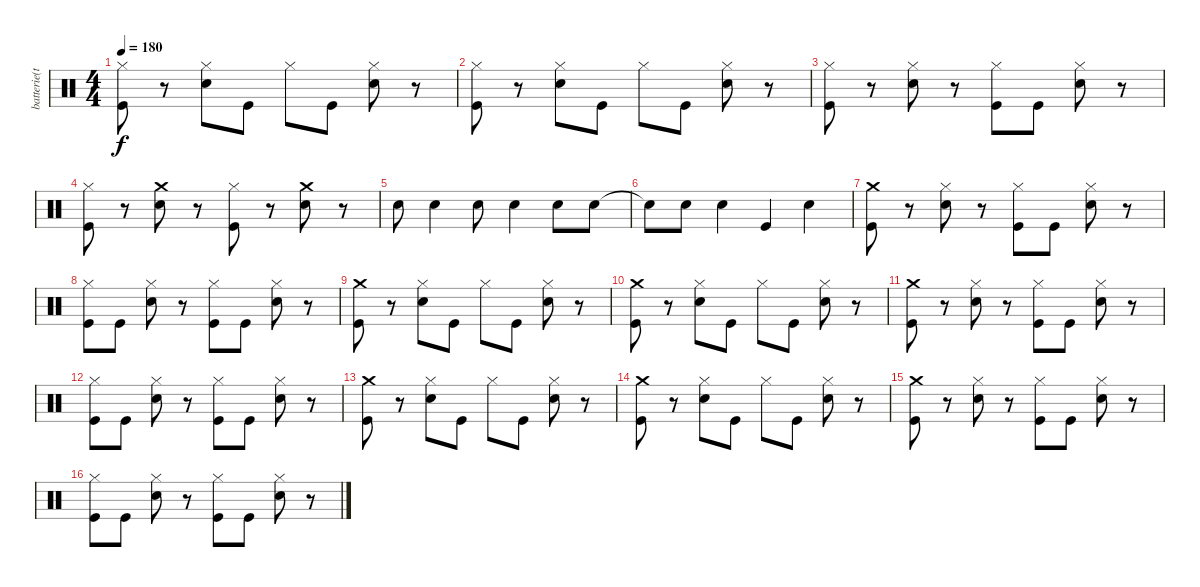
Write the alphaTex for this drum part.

\track ("batterie(topper)" "batterie(t") {instrument percussion}
\staff {score}
\articulation defaults
\ts (4 4)
\tempo 180
\clef neutral
\ks c
("Hi-Hat (closed)" "Kick (hit)").8{dy f} r.8 ("Hi-Hat (closed)" "Snare (hit) 2").8 "Kick (hit)".8 "Hi-Hat (closed)".8 "Kick (hit)".8 ("Hi-Hat (closed)" "Snare (hit) 2").8 r.8 |
("Hi-Hat (closed)" "Kick (hit)").8 r.8 ("Hi-Hat (closed)" "Snare (hit) 2").8 "Kick (hit)".8 "Hi-Hat (closed)".8 "Kick (hit)".8 ("Hi-Hat (closed)" "Snare (hit) 2").8 r.8 |
("Hi-Hat (closed)" "Kick (hit)").8 r.8 ("Hi-Hat (closed)" "Snare (hit) 2").8 r.8 ("Hi-Hat (closed)" "Kick (hit)").8 "Kick (hit)".8 ("Hi-Hat (closed)" "Snare (hit) 2").8 r.8 |
("Hi-Hat (closed)" "Kick (hit)").8 r.8 ("Crash medium (hit)" "Snare (hit) 2").8 r.8 ("Hi-Hat (closed)" "Kick (hit)").8 r.8 ("Crash medium (hit)" "Snare (hit) 2").8 r.8 |
"Snare (hit) 2".8 "Snare (hit) 2".4 "Snare (hit) 2".8 "Snare (hit) 2".4 "Snare (hit) 2".8 "Snare (hit) 2".8 |
"Snare (hit) 2"{t}.8 "Snare (hit) 2".8 "Snare (hit) 2".4 "Kick (hit)".4 "Snare (hit) 2".4 |
("Crash medium (hit)" "Kick (hit)").8 r.8 ("Hi-Hat (closed)" "Snare (hit) 2").8 r.8 ("Hi-Hat (closed)" "Kick (hit)").8 "Kick (hit)".8 ("Hi-Hat (closed)" "Snare (hit) 2").8 r.8 |
("Hi-Hat (closed)" "Kick (hit)").8 "Kick (hit)".8 ("Hi-Hat (closed)" "Snare (hit) 2").8 r.8 ("Hi-Hat (closed)" "Kick (hit)").8 "Kick (hit)".8 ("Hi-Hat (closed)" "Snare (hit) 2").8 r.8 |
("Crash medium (hit)" "Kick (hit)").8 r.8 ("Hi-Hat (closed)" "Snare (hit) 2").8 "Kick (hit)".8 "Hi-Hat (closed)".8 "Kick (hit)".8 ("Hi-Hat (closed)" "Snare (hit) 2").8 r.8 |
("Crash medium (hit)" "Kick (hit)").8 r.8 ("Hi-Hat (closed)" "Snare (hit) 2").8 "Kick (hit)".8 "Hi-Hat (closed)".8 "Kick (hit)".8 ("Hi-Hat (closed)" "Snare (hit) 2").8 r.8 |
("Crash medium (hit)" "Kick (hit)").8 r.8 ("Hi-Hat (closed)" "Snare (hit) 2").8 r.8 ("Hi-Hat (closed)" "Kick (hit)").8 "Kick (hit)".8 ("Hi-Hat (closed)" "Snare (hit) 2").8 r.8 |
("Hi-Hat (closed)" "Kick (hit)").8 "Kick (hit)".8 ("Hi-Hat (closed)" "Snare (hit) 2").8 r.8 ("Hi-Hat (closed)" "Kick (hit)").8 "Kick (hit)".8 ("Hi-Hat (closed)" "Snare (hit) 2").8 r.8 |
("Crash medium (hit)" "Kick (hit)").8 r.8 ("Hi-Hat (closed)" "Snare (hit) 2").8 "Kick (hit)".8 "Hi-Hat (closed)".8 "Kick (hit)".8 ("Hi-Hat (closed)" "Snare (hit) 2").8 r.8 |
("Crash medium (hit)" "Kick (hit)").8 r.8 ("Hi-Hat (closed)" "Snare (hit) 2").8 "Kick (hit)".8 "Hi-Hat (closed)".8 "Kick (hit)".8 ("Hi-Hat (closed)" "Snare (hit) 2").8 r.8 |
("Crash medium (hit)" "Kick (hit)").8 r.8 ("Hi-Hat (closed)" "Snare (hit) 2").8 r.8 ("Hi-Hat (closed)" "Kick (hit)").8 "Kick (hit)".8 ("Hi-Hat (closed)" "Snare (hit) 2").8 r.8 |
("Hi-Hat (closed)" "Kick (hit)").8 "Kick (hit)".8 ("Hi-Hat (closed)" "Snare (hit) 2").8 r.8 ("Hi-Hat (closed)" "Kick (hit)").8 "Kick (hit)".8 ("Hi-Hat (closed)" "Snare (hit) 2").8 r.8
